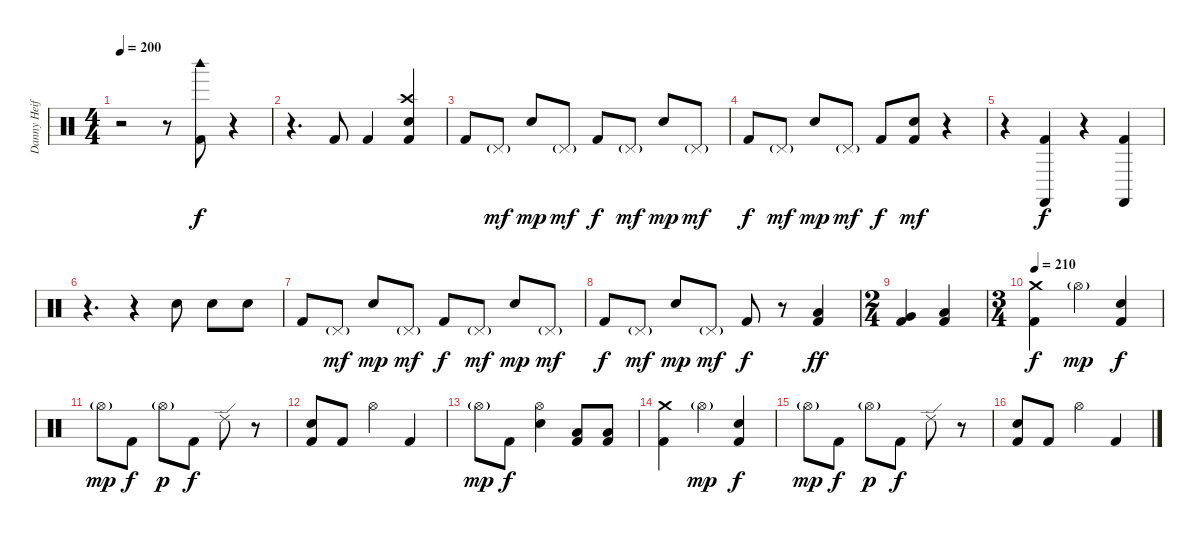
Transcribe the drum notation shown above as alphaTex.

\track ("Danny Heifetz - Drums" "Danny Heif") {instrument percussion}
\staff {score}
\articulation defaults
\ts (4 4)
\tempo 200
\clef neutral
\ks c
r.2{dy f} r.8 ("Woodblock high (hit)" "Kick (hit) 2").8 r.4 |
r.4{d} "Kick (hit) 2".8 "Kick (hit) 2".4 ("Crash high (hit)" "Electric Snare (hit)" "Kick (hit) 2").4 |
"Kick (hit) 2".8 "Pedal Hi-Hat (hit)"{g}.8{dy mf} "Electric Snare (hit)".8{dy mp} "Pedal Hi-Hat (hit)"{g}.8{dy mf} "Kick (hit) 2".8{dy f} "Pedal Hi-Hat (hit)"{g}.8{dy mf} "Electric Snare (hit)".8{dy mp} "Pedal Hi-Hat (hit)"{g}.8{dy mf} |
"Kick (hit) 2".8{dy f} "Pedal Hi-Hat (hit)"{g}.8{dy mf} "Electric Snare (hit)".8{dy mp} "Pedal Hi-Hat (hit)"{g}.8{dy mf} "Kick (hit) 2".8{dy f} ("Electric Snare (hit)" "Kick (hit) 2").8{dy mf} r.4 |
r.4 ("Castanets (hit)" "Kick (hit) 2").4{dy f} r.4 ("Castanets (hit)" "Kick (hit) 2").4 |
r.4{d} r.4 "Electric Snare (hit)".8 "Electric Snare (hit)".8 "Electric Snare (hit)".8 |
"Kick (hit) 2".8 "Pedal Hi-Hat (hit)"{g}.8{dy mf} "Electric Snare (hit)".8{dy mp} "Pedal Hi-Hat (hit)"{g}.8{dy mf} "Kick (hit) 2".8{dy f} "Pedal Hi-Hat (hit)"{g}.8{dy mf} "Electric Snare (hit)".8{dy mp} "Pedal Hi-Hat (hit)"{g}.8{dy mf} |
"Kick (hit) 2".8{dy f} "Pedal Hi-Hat (hit)"{g}.8{dy mf} "Electric Snare (hit)".8{dy mp} "Pedal Hi-Hat (hit)"{g}.8{dy mf} "Kick (hit) 2".8{dy f} r.8 ("Low Tom (hit)" "Kick (hit) 2").4{dy ff} |
\ts (2 4)
("Very Low Tom (hit)" "Kick (hit) 2").4 ("Low Floor Tom (hit)" "Kick (hit) 2").4 |
\ts (3 4)
\tempo 210
("Crash medium (hit)" "Kick (hit) 2").4{dy f} "Hi-Hat (open)"{g}.4{dy mp} ("Electric Snare (hit)" "Kick (hit) 2").4{dy f} |
"Hi-Hat (open)"{g}.8{dy mp} "Kick (hit) 2".8{dy f} "Hi-Hat (open)"{g}.8{dy p} "Kick (hit) 2".8{dy f} "Ride (edge) 2".8 r.8 |
("Electric Snare (hit)" "Kick (hit) 2").8 "Kick (hit) 2".8 "Hi-Hat (open)".4 "Kick (hit) 2".4 |
"Hi-Hat (open)"{g}.8{dy mp} "Kick (hit) 2".8{dy f} ("Hi-Hat (open)" "Electric Snare (hit)").4 ("Low Floor Tom (hit)" "Kick (hit) 2").8 ("Low Floor Tom (hit)" "Kick (hit) 2").8 |
("Crash medium (hit)" "Kick (hit) 2").4 "Hi-Hat (open)"{g}.4{dy mp} ("Electric Snare (hit)" "Kick (hit) 2").4{dy f} |
"Hi-Hat (open)"{g}.8{dy mp} "Kick (hit) 2".8{dy f} "Hi-Hat (open)"{g}.8{dy p} "Kick (hit) 2".8{dy f} "Ride (edge) 2".8 r.8 |
("Electric Snare (hit)" "Kick (hit) 2").8 "Kick (hit) 2".8 "Hi-Hat (open)".4 "Kick (hit) 2".4
